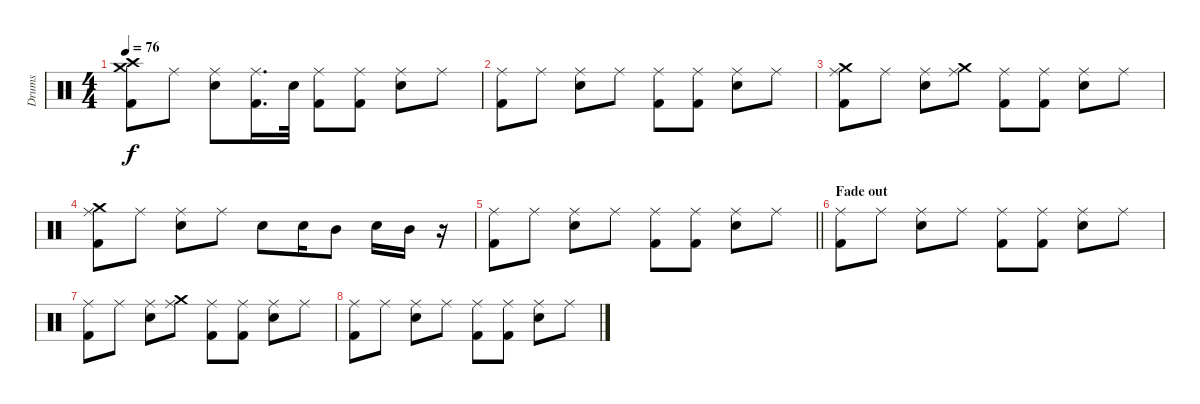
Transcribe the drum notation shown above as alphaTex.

\track ("Drums" "Drums") {instrument percussion}
\staff {score}
\articulation defaults
\ts (4 4)
\tempo 76
\clef neutral
\ks c
("Crash high (hit)" "Crash medium (hit)" "Kick (hit) 2").8{dy f} "Ride (middle)".8 ("Ride (middle)" "Electric Snare (hit)").8 ("Ride (middle)" "Kick (hit) 2").16{d} "Electric Snare (hit)".32 ("Ride (middle)" "Kick (hit) 2").8 ("Ride (middle)" "Kick (hit) 2").8 ("Ride (middle)" "Electric Snare (hit)").8 "Ride (middle)".8 |
("Ride (middle)" "Kick (hit) 2").8 "Ride (middle)".8 ("Ride (middle)" "Electric Snare (hit)").8 "Ride (middle)".8 ("Ride (middle)" "Kick (hit) 2").8 ("Ride (middle)" "Kick (hit) 2").8 ("Ride (middle)" "Electric Snare (hit)").8 "Ride (middle)".8 |
("Ride (middle)" "Crash medium (hit)" "Kick (hit) 2").8 "Ride (middle)".8 ("Ride (middle)" "Electric Snare (hit)").8 ("Ride (middle)" "Crash medium (hit)").8 ("Ride (middle)" "Kick (hit) 2").8 ("Ride (middle)" "Kick (hit) 2").8 ("Ride (middle)" "Electric Snare (hit)").8 "Ride (middle)".8 |
("Ride (middle)" "Crash medium (hit)" "Kick (hit) 2").8 "Ride (middle)".8 ("Ride (middle)" "Electric Snare (hit)").8 "Ride (middle)".8 "Electric Snare (hit)".8 "Electric Snare (hit)".16 "Mid Tom (hit)".8 "Electric Snare (hit)".16 "Mid Tom (hit)".16 r.16 |
\barLineRight lightlight
("Ride (middle)" "Kick (hit) 2").8 "Ride (middle)".8 ("Ride (middle)" "Electric Snare (hit)").8 "Ride (middle)".8 ("Ride (middle)" "Kick (hit) 2").8 ("Ride (middle)" "Kick (hit) 2").8 ("Ride (middle)" "Electric Snare (hit)").8 "Ride (middle)".8 |
\section ("" "Fade out")
("Ride (middle)" "Kick (hit) 2").8{volume 0} "Ride (middle)".8 ("Ride (middle)" "Electric Snare (hit)").8 "Ride (middle)".8 ("Ride (middle)" "Kick (hit) 2").8 ("Ride (middle)" "Kick (hit) 2").8 ("Ride (middle)" "Electric Snare (hit)").8 "Ride (middle)".8 |
("Ride (middle)" "Kick (hit) 2").8 "Ride (middle)".8 ("Ride (middle)" "Electric Snare (hit)").8 ("Ride (middle)" "Crash medium (hit)").8 ("Ride (middle)" "Kick (hit) 2").8 ("Ride (middle)" "Kick (hit) 2").8 ("Ride (middle)" "Electric Snare (hit)").8 "Ride (middle)".8 |
("Ride (middle)" "Kick (hit) 2").8 "Ride (middle)".8 ("Ride (middle)" "Electric Snare (hit)").8 "Ride (middle)".8 ("Ride (middle)" "Kick (hit) 2").8 ("Ride (middle)" "Kick (hit) 2").8 ("Ride (middle)" "Electric Snare (hit)").8 "Ride (middle)".8
